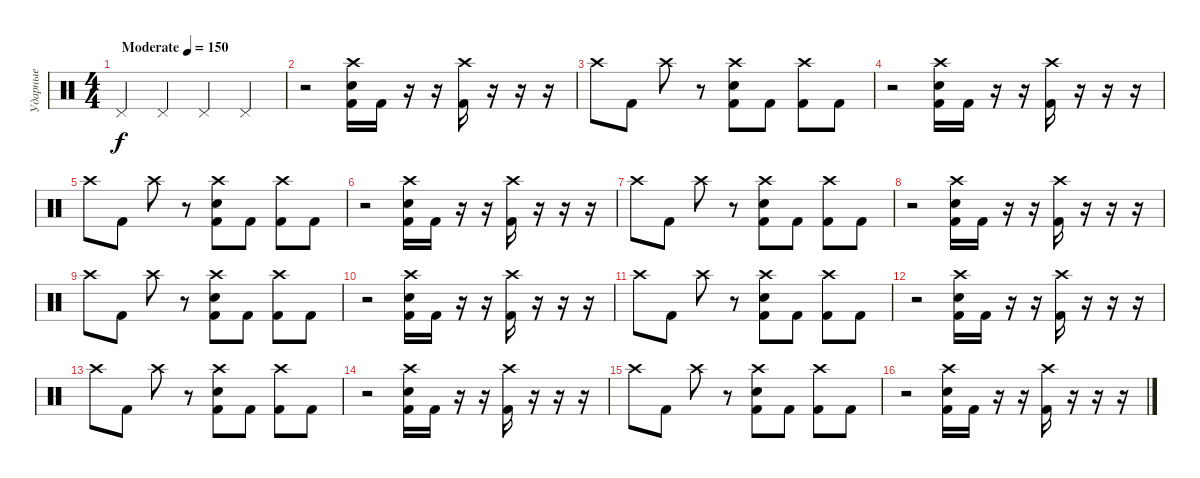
\track ("Ударные" "Ударные") {instrument percussion}
\staff {score}
\articulation defaults
\ts (4 4)
\tempo (150 "Moderate")
\clef neutral
\ks c "Pedal Hi-Hat (hit)".4{dy f} "Pedal Hi-Hat (hit)".4 "Pedal Hi-Hat (hit)".4 "Pedal Hi-Hat (hit)".4
|
r.2 ("Crash high (hit)" "Electric Snare (hit)" "Kick (hit) 2").16 "Kick (hit) 2".16 r.16 r.16 ("Crash high (hit)" "Kick (hit) 2").16 r.16 r.16 r.16 |
"Crash high (hit)".8 "Kick (hit) 2".8 "Crash high (hit)".8 r.8 ("Crash high (hit)" "Electric Snare (hit)" "Kick (hit) 2").8 "Kick (hit) 2".8 ("Crash high (hit)" "Kick (hit) 2").8 "Kick (hit) 2".8 |
r.2 ("Crash high (hit)" "Electric Snare (hit)" "Kick (hit) 2").16 "Kick (hit) 2".16 r.16 r.16 ("Crash high (hit)" "Kick (hit) 2").16 r.16 r.16 r.16 |
"Crash high (hit)".8 "Kick (hit) 2".8 "Crash high (hit)".8 r.8 ("Crash high (hit)" "Electric Snare (hit)" "Kick (hit) 2").8 "Kick (hit) 2".8 ("Crash high (hit)" "Kick (hit) 2").8 "Kick (hit) 2".8 |
r.2 ("Crash high (hit)" "Electric Snare (hit)" "Kick (hit) 2").16 "Kick (hit) 2".16 r.16 r.16 ("Crash high (hit)" "Kick (hit) 2").16 r.16 r.16 r.16 |
"Crash high (hit)".8 "Kick (hit) 2".8 "Crash high (hit)".8 r.8 ("Crash high (hit)" "Electric Snare (hit)" "Kick (hit) 2").8 "Kick (hit) 2".8 ("Crash high (hit)" "Kick (hit) 2").8 "Kick (hit) 2".8 |
r.2 ("Crash high (hit)" "Electric Snare (hit)" "Kick (hit) 2").16 "Kick (hit) 2".16 r.16 r.16 ("Crash high (hit)" "Kick (hit) 2").16 r.16 r.16 r.16 |
"Crash high (hit)".8 "Kick (hit) 2".8 "Crash high (hit)".8 r.8 ("Crash high (hit)" "Electric Snare (hit)" "Kick (hit) 2").8 "Kick (hit) 2".8 ("Crash high (hit)" "Kick (hit) 2").8 "Kick (hit) 2".8 |
r.2 ("Crash high (hit)" "Electric Snare (hit)" "Kick (hit) 2").16 "Kick (hit) 2".16 r.16 r.16 ("Crash high (hit)" "Kick (hit) 2").16 r.16 r.16 r.16 |
"Crash high (hit)".8 "Kick (hit) 2".8 "Crash high (hit)".8 r.8 ("Crash high (hit)" "Electric Snare (hit)" "Kick (hit) 2").8 "Kick (hit) 2".8 ("Crash high (hit)" "Kick (hit) 2").8 "Kick (hit) 2".8 |
r.2 ("Crash high (hit)" "Electric Snare (hit)" "Kick (hit) 2").16 "Kick (hit) 2".16 r.16 r.16 ("Crash high (hit)" "Kick (hit) 2").16 r.16 r.16 r.16 |
"Crash high (hit)".8 "Kick (hit) 2".8 "Crash high (hit)".8 r.8 ("Crash high (hit)" "Electric Snare (hit)" "Kick (hit) 2").8 "Kick (hit) 2".8 ("Crash high (hit)" "Kick (hit) 2").8 "Kick (hit) 2".8 |
r.2 ("Crash high (hit)" "Electric Snare (hit)" "Kick (hit) 2").16 "Kick (hit) 2".16 r.16 r.16 ("Crash high (hit)" "Kick (hit) 2").16 r.16 r.16 r.16 |
"Crash high (hit)".8 "Kick (hit) 2".8 "Crash high (hit)".8 r.8 ("Crash high (hit)" "Electric Snare (hit)" "Kick (hit) 2").8 "Kick (hit) 2".8 ("Crash high (hit)" "Kick (hit) 2").8 "Kick (hit) 2".8 |
r.2 ("Crash high (hit)" "Electric Snare (hit)" "Kick (hit) 2").16 "Kick (hit) 2".16 r.16 r.16 ("Crash high (hit)" "Kick (hit) 2").16 r.16 r.16 r.16
